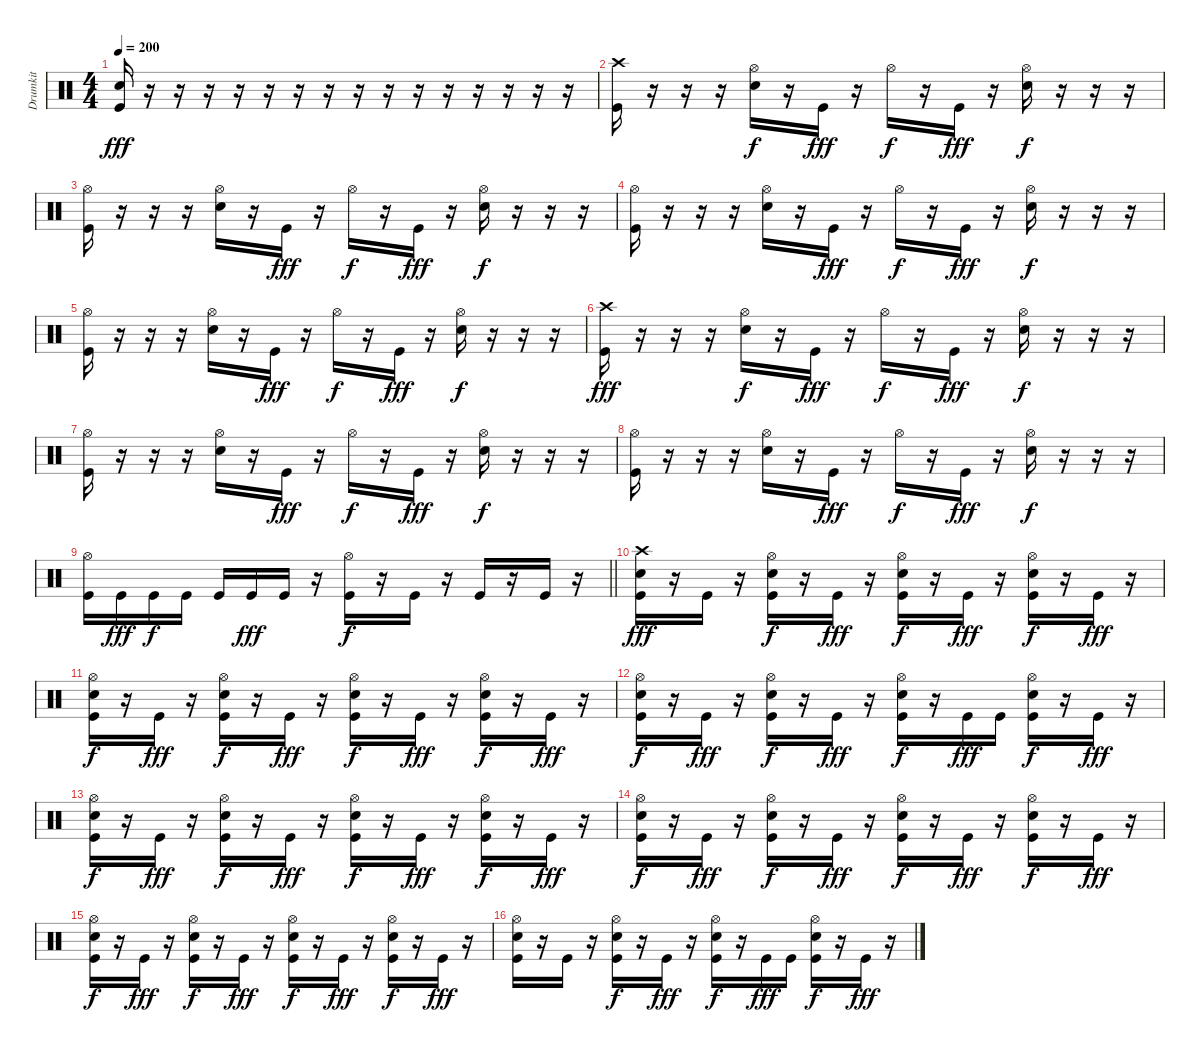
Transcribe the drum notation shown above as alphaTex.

\track ("Drumkit" "Drumkit") {instrument percussion}
\staff {score}
\articulation defaults
\ts (4 4)
\tempo 200
\clef neutral
\ks c
("Snare (hit) 2" "Kick (hit)").16{dy fff} r.16 r.16 r.16 r.16 r.16 r.16 r.16 r.16 r.16 r.16 r.16 r.16 r.16 r.16 r.16 |
("Crash high (hit)" "Kick (hit)").16 r.16 r.16 r.16 ("Hi-Hat (open)" "Snare (hit) 2").16{dy f} r.16 "Kick (hit)".16{dy fff} r.16 "Hi-Hat (open)".16{dy f} r.16 "Kick (hit)".16{dy fff} r.16 ("Hi-Hat (open)" "Snare (hit) 2").16{dy f} r.16 r.16 r.16 |
("Hi-Hat (open)" "Kick (hit)").16 r.16 r.16 r.16 ("Hi-Hat (open)" "Snare (hit) 2").16 r.16 "Kick (hit)".16{dy fff} r.16 "Hi-Hat (open)".16{dy f} r.16 "Kick (hit)".16{dy fff} r.16 ("Hi-Hat (open)" "Snare (hit) 2").16{dy f} r.16 r.16 r.16 |
("Hi-Hat (open)" "Kick (hit)").16 r.16 r.16 r.16 ("Hi-Hat (open)" "Snare (hit) 2").16 r.16 "Kick (hit)".16{dy fff} r.16 "Hi-Hat (open)".16{dy f} r.16 "Kick (hit)".16{dy fff} r.16 ("Hi-Hat (open)" "Snare (hit) 2").16{dy f} r.16 r.16 r.16 |
("Hi-Hat (open)" "Kick (hit)").16 r.16 r.16 r.16 ("Hi-Hat (open)" "Snare (hit) 2").16 r.16 "Kick (hit)".16{dy fff} r.16 "Hi-Hat (open)".16{dy f} r.16 "Kick (hit)".16{dy fff} r.16 ("Hi-Hat (open)" "Snare (hit) 2").16{dy f} r.16 r.16 r.16 |
("Crash high (hit)" "Kick (hit)").16{dy fff} r.16 r.16 r.16 ("Hi-Hat (open)" "Snare (hit) 2").16{dy f} r.16 "Kick (hit)".16{dy fff} r.16 "Hi-Hat (open)".16{dy f} r.16 "Kick (hit)".16{dy fff} r.16 ("Hi-Hat (open)" "Snare (hit) 2").16{dy f} r.16 r.16 r.16 |
("Hi-Hat (open)" "Kick (hit)").16 r.16 r.16 r.16 ("Hi-Hat (open)" "Snare (hit) 2").16 r.16 "Kick (hit)".16{dy fff} r.16 "Hi-Hat (open)".16{dy f} r.16 "Kick (hit)".16{dy fff} r.16 ("Hi-Hat (open)" "Snare (hit) 2").16{dy f} r.16 r.16 r.16 |
("Hi-Hat (open)" "Kick (hit)").16 r.16 r.16 r.16 ("Hi-Hat (open)" "Snare (hit) 2").16 r.16 "Kick (hit)".16{dy fff} r.16 "Hi-Hat (open)".16{dy f} r.16 "Kick (hit)".16{dy fff} r.16 ("Hi-Hat (open)" "Snare (hit) 2").16{dy f} r.16 r.16 r.16 |
\barLineRight lightlight
("Hi-Hat (open)" "Kick (hit)").16 "Kick (hit)".16{dy fff} "Kick (hit)".16{dy f} "Kick (hit)".16 "Kick (hit)".16 "Kick (hit)".16{dy fff} "Kick (hit)".16 r.16 ("Hi-Hat (open)" "Kick (hit)").16{dy f} r.16 "Kick (hit)".16 r.16 "Kick (hit)".16 r.16 "Kick (hit)".16 r.16 |
("Crash high (hit)" "Snare (hit) 2" "Kick (hit)").16{dy fff} r.16 "Kick (hit)".16 r.16 ("Hi-Hat (open)" "Snare (hit) 2" "Kick (hit)").16{dy f} r.16 "Kick (hit)".16{dy fff} r.16 ("Hi-Hat (open)" "Snare (hit) 2" "Kick (hit)").16{dy f} r.16 "Kick (hit)".16{dy fff} r.16 ("Hi-Hat (open)" "Snare (hit) 2" "Kick (hit)").16{dy f} r.16 "Kick (hit)".16{dy fff} r.16 |
("Hi-Hat (open)" "Snare (hit) 2" "Kick (hit)").16{dy f} r.16 "Kick (hit)".16{dy fff} r.16 ("Hi-Hat (open)" "Snare (hit) 2" "Kick (hit)").16{dy f} r.16 "Kick (hit)".16{dy fff} r.16 ("Hi-Hat (open)" "Snare (hit) 2" "Kick (hit)").16{dy f} r.16 "Kick (hit)".16{dy fff} r.16 ("Hi-Hat (open)" "Snare (hit) 2" "Kick (hit)").16{dy f} r.16 "Kick (hit)".16{dy fff} r.16 |
("Hi-Hat (open)" "Snare (hit) 2" "Kick (hit)").16{dy f} r.16 "Kick (hit)".16{dy fff} r.16 ("Hi-Hat (open)" "Snare (hit) 2" "Kick (hit)").16{dy f} r.16 "Kick (hit)".16{dy fff} r.16 ("Hi-Hat (open)" "Snare (hit) 2" "Kick (hit)").16{dy f} r.16 "Kick (hit)".16{dy fff} "Kick (hit)".16 ("Hi-Hat (open)" "Snare (hit) 2" "Kick (hit)").16{dy f} r.16 "Kick (hit)".16{dy fff} r.16 |
("Hi-Hat (open)" "Snare (hit) 2" "Kick (hit)").16{dy f} r.16 "Kick (hit)".16{dy fff} r.16 ("Hi-Hat (open)" "Snare (hit) 2" "Kick (hit)").16{dy f} r.16 "Kick (hit)".16{dy fff} r.16 ("Hi-Hat (open)" "Snare (hit) 2" "Kick (hit)").16{dy f} r.16 "Kick (hit)".16{dy fff} r.16 ("Hi-Hat (open)" "Snare (hit) 2" "Kick (hit)").16{dy f} r.16 "Kick (hit)".16{dy fff} r.16 |
("Hi-Hat (open)" "Snare (hit) 2" "Kick (hit)").16{dy f} r.16 "Kick (hit)".16{dy fff} r.16 ("Hi-Hat (open)" "Snare (hit) 2" "Kick (hit)").16{dy f} r.16 "Kick (hit)".16{dy fff} r.16 ("Hi-Hat (open)" "Snare (hit) 2" "Kick (hit)").16{dy f} r.16 "Kick (hit)".16{dy fff} r.16 ("Hi-Hat (open)" "Snare (hit) 2" "Kick (hit)").16{dy f} r.16 "Kick (hit)".16{dy fff} r.16 |
("Hi-Hat (open)" "Snare (hit) 2" "Kick (hit)").16{dy f} r.16 "Kick (hit)".16{dy fff} r.16 ("Hi-Hat (open)" "Snare (hit) 2" "Kick (hit)").16{dy f} r.16 "Kick (hit)".16{dy fff} r.16 ("Hi-Hat (open)" "Snare (hit) 2" "Kick (hit)").16{dy f} r.16 "Kick (hit)".16{dy fff} r.16 ("Hi-Hat (open)" "Snare (hit) 2" "Kick (hit)").16{dy f} r.16 "Kick (hit)".16{dy fff} r.16 |
("Hi-Hat (open)" "Snare (hit) 2" "Kick (hit)").16 r.16 "Kick (hit)".16 r.16 ("Hi-Hat (open)" "Snare (hit) 2" "Kick (hit)").16{dy f} r.16 "Kick (hit)".16{dy fff} r.16 ("Hi-Hat (open)" "Snare (hit) 2" "Kick (hit)").16{dy f} r.16 "Kick (hit)".16{dy fff} "Kick (hit)".16 ("Hi-Hat (open)" "Snare (hit) 2" "Kick (hit)").16{dy f} r.16 "Kick (hit)".16{dy fff} r.16
